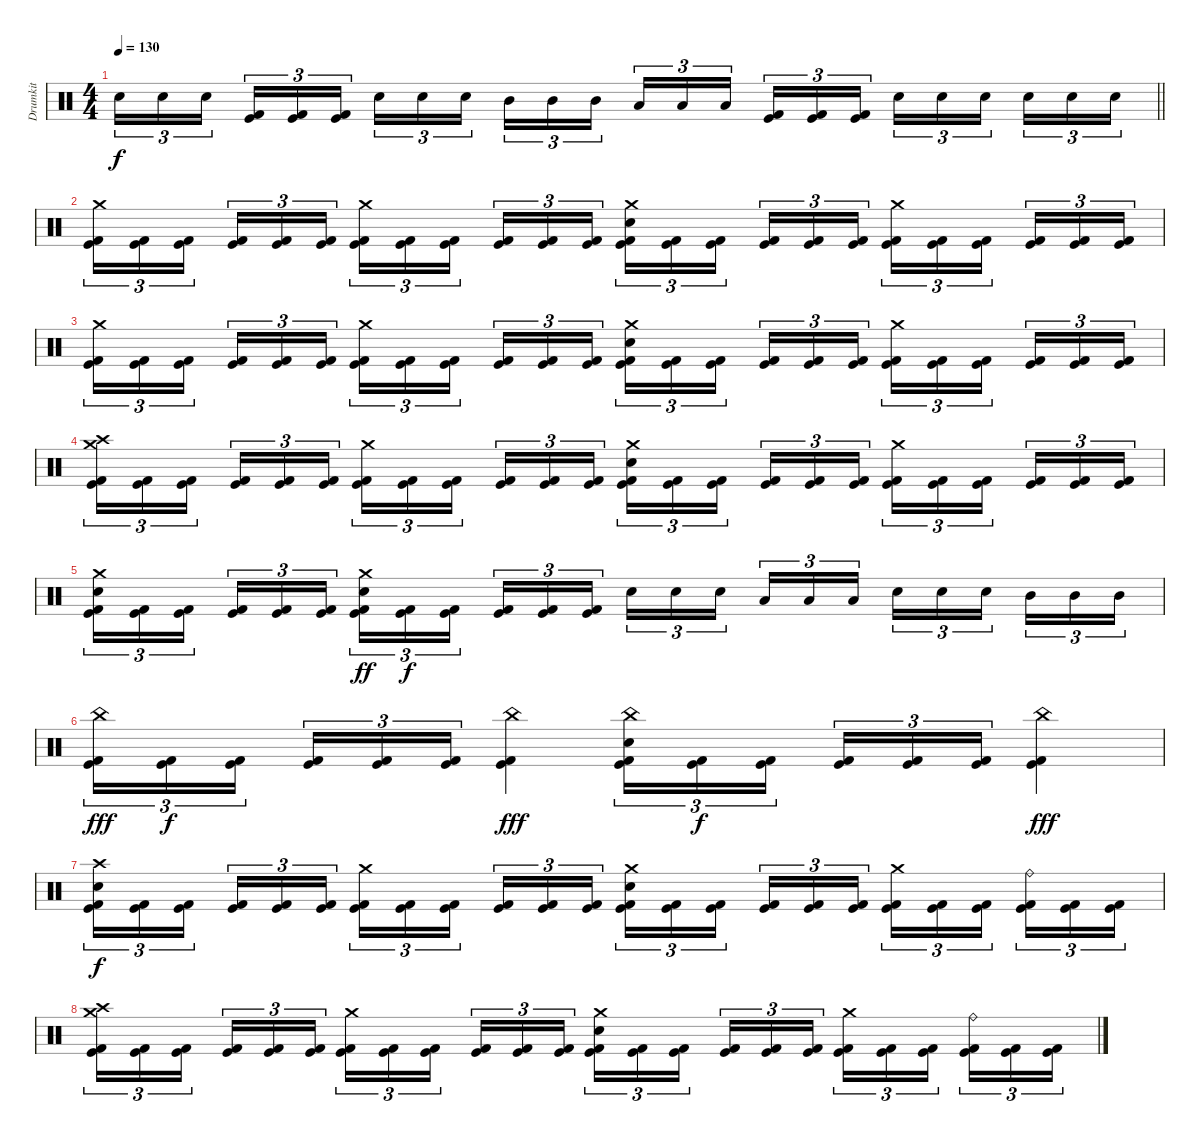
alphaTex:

\track ("Drumkit" "Drumkit") {instrument percussion}
\staff {score}
\articulation defaults
\ts (4 4)
\tempo 130
\clef neutral
\barLineRight lightlight
\ks c "Electric Snare (hit)".16{tu (3 2) dy f} "Electric Snare (hit)".16{tu (3 2)} "Electric Snare (hit)".16{tu (3 2) beam splitsecondary}
("Kick (hit)" "Kick (hit) 2").16{tu (3 2)} ("Kick (hit)" "Kick (hit) 2").16{tu (3 2)} ("Kick (hit)" "Kick (hit) 2").16{tu (3 2)} "Electric Snare (hit)".16{tu (3 2)} "Electric Snare (hit)".16{tu (3 2)} "Electric Snare (hit)".16{tu (3 2) beam splitsecondary} "Mid Tom (hit)".16{tu (3 2)} "Mid Tom (hit)".16{tu (3 2)} "Mid Tom (hit)".16{tu (3 2)} "Low Tom (hit)".16{tu (3 2)} "Low Tom (hit)".16{tu (3 2)} "Low Tom (hit)".16{tu (3 2) beam splitsecondary} ("Kick (hit)" "Kick (hit) 2").16{tu (3 2)} ("Kick (hit)" "Kick (hit) 2").16{tu (3 2)} ("Kick (hit)" "Kick (hit) 2").16{tu (3 2)} "Electric Snare (hit)".16{tu (3 2)} "Electric Snare (hit)".16{tu (3 2)} "Electric Snare (hit)".16{tu (3 2) beam splitsecondary} "Electric Snare (hit)".16{tu (3 2)} "Electric Snare (hit)".16{tu (3 2)} "Electric Snare (hit)".16{tu (3 2)} |
("Crash medium (hit)" "Kick (hit)" "Kick (hit) 2").16{tu (3 2)} ("Kick (hit)" "Kick (hit) 2").16{tu (3 2)} ("Kick (hit)" "Kick (hit) 2").16{tu (3 2) beam splitsecondary} ("Kick (hit)" "Kick (hit) 2").16{tu (3 2)} ("Kick (hit)" "Kick (hit) 2").16{tu (3 2)} ("Kick (hit)" "Kick (hit) 2").16{tu (3 2)} ("Crash medium (hit)" "Kick (hit)" "Kick (hit) 2").16{tu (3 2)} ("Kick (hit)" "Kick (hit) 2").16{tu (3 2)} ("Kick (hit)" "Kick (hit) 2").16{tu (3 2) beam splitsecondary} ("Kick (hit)" "Kick (hit) 2").16{tu (3 2)} ("Kick (hit)" "Kick (hit) 2").16{tu (3 2)} ("Kick (hit)" "Kick (hit) 2").16{tu (3 2)} ("Crash medium (hit)" "Electric Snare (hit)" "Kick (hit)" "Kick (hit) 2").16{tu (3 2)} ("Kick (hit)" "Kick (hit) 2").16{tu (3 2)} ("Kick (hit)" "Kick (hit) 2").16{tu (3 2) beam splitsecondary} ("Kick (hit)" "Kick (hit) 2").16{tu (3 2)} ("Kick (hit)" "Kick (hit) 2").16{tu (3 2)} ("Kick (hit)" "Kick (hit) 2").16{tu (3 2)} ("Crash medium (hit)" "Kick (hit)" "Kick (hit) 2").16{tu (3 2)} ("Kick (hit)" "Kick (hit) 2").16{tu (3 2)} ("Kick (hit)" "Kick (hit) 2").16{tu (3 2) beam splitsecondary} ("Kick (hit)" "Kick (hit) 2").16{tu (3 2)} ("Kick (hit)" "Kick (hit) 2").16{tu (3 2)} ("Kick (hit)" "Kick (hit) 2").16{tu (3 2)} |
("Crash medium (hit)" "Kick (hit)" "Kick (hit) 2").16{tu (3 2)} ("Kick (hit)" "Kick (hit) 2").16{tu (3 2)} ("Kick (hit)" "Kick (hit) 2").16{tu (3 2) beam splitsecondary} ("Kick (hit)" "Kick (hit) 2").16{tu (3 2)} ("Kick (hit)" "Kick (hit) 2").16{tu (3 2)} ("Kick (hit)" "Kick (hit) 2").16{tu (3 2)} ("Crash medium (hit)" "Kick (hit)" "Kick (hit) 2").16{tu (3 2)} ("Kick (hit)" "Kick (hit) 2").16{tu (3 2)} ("Kick (hit)" "Kick (hit) 2").16{tu (3 2) beam splitsecondary} ("Kick (hit)" "Kick (hit) 2").16{tu (3 2)} ("Kick (hit)" "Kick (hit) 2").16{tu (3 2)} ("Kick (hit)" "Kick (hit) 2").16{tu (3 2)} ("Crash medium (hit)" "Electric Snare (hit)" "Kick (hit)" "Kick (hit) 2").16{tu (3 2)} ("Kick (hit)" "Kick (hit) 2").16{tu (3 2)} ("Kick (hit)" "Kick (hit) 2").16{tu (3 2) beam splitsecondary} ("Kick (hit)" "Kick (hit) 2").16{tu (3 2)} ("Kick (hit)" "Kick (hit) 2").16{tu (3 2)} ("Kick (hit)" "Kick (hit) 2").16{tu (3 2)} ("Crash medium (hit)" "Kick (hit)" "Kick (hit) 2").16{tu (3 2)} ("Kick (hit)" "Kick (hit) 2").16{tu (3 2)} ("Kick (hit)" "Kick (hit) 2").16{tu (3 2) beam splitsecondary} ("Kick (hit)" "Kick (hit) 2").16{tu (3 2)} ("Kick (hit)" "Kick (hit) 2").16{tu (3 2)} ("Kick (hit)" "Kick (hit) 2").16{tu (3 2)} |
("Crash high (hit)" "Crash medium (hit)" "Kick (hit)" "Kick (hit) 2").16{tu (3 2)} ("Kick (hit)" "Kick (hit) 2").16{tu (3 2)} ("Kick (hit)" "Kick (hit) 2").16{tu (3 2) beam splitsecondary} ("Kick (hit)" "Kick (hit) 2").16{tu (3 2)} ("Kick (hit)" "Kick (hit) 2").16{tu (3 2)} ("Kick (hit)" "Kick (hit) 2").16{tu (3 2)} ("Crash medium (hit)" "Kick (hit)" "Kick (hit) 2").16{tu (3 2)} ("Kick (hit)" "Kick (hit) 2").16{tu (3 2)} ("Kick (hit)" "Kick (hit) 2").16{tu (3 2) beam splitsecondary} ("Kick (hit)" "Kick (hit) 2").16{tu (3 2)} ("Kick (hit)" "Kick (hit) 2").16{tu (3 2)} ("Kick (hit)" "Kick (hit) 2").16{tu (3 2)} ("Crash medium (hit)" "Electric Snare (hit)" "Kick (hit)" "Kick (hit) 2").16{tu (3 2)} ("Kick (hit)" "Kick (hit) 2").16{tu (3 2)} ("Kick (hit)" "Kick (hit) 2").16{tu (3 2) beam splitsecondary} ("Kick (hit)" "Kick (hit) 2").16{tu (3 2)} ("Kick (hit)" "Kick (hit) 2").16{tu (3 2)} ("Kick (hit)" "Kick (hit) 2").16{tu (3 2)} ("Crash medium (hit)" "Kick (hit)" "Kick (hit) 2").16{tu (3 2)} ("Kick (hit)" "Kick (hit) 2").16{tu (3 2)} ("Kick (hit)" "Kick (hit) 2").16{tu (3 2) beam splitsecondary} ("Kick (hit)" "Kick (hit) 2").16{tu (3 2)} ("Kick (hit)" "Kick (hit) 2").16{tu (3 2)} ("Kick (hit)" "Kick (hit) 2").16{tu (3 2)} |
("Crash medium (hit)" "Electric Snare (hit)" "Kick (hit)" "Kick (hit) 2").16{tu (3 2)} ("Kick (hit)" "Kick (hit) 2").16{tu (3 2)} ("Kick (hit)" "Kick (hit) 2").16{tu (3 2) beam splitsecondary} ("Kick (hit)" "Kick (hit) 2").16{tu (3 2)} ("Kick (hit)" "Kick (hit) 2").16{tu (3 2)} ("Kick (hit)" "Kick (hit) 2").16{tu (3 2)} ("Crash medium (hit)" "Electric Snare (hit)" "Kick (hit)" "Kick (hit) 2").16{tu (3 2) dy ff} ("Kick (hit)" "Kick (hit) 2").16{tu (3 2) dy f} ("Kick (hit)" "Kick (hit) 2").16{tu (3 2) beam splitsecondary} ("Kick (hit)" "Kick (hit) 2").16{tu (3 2)} ("Kick (hit)" "Kick (hit) 2").16{tu (3 2)} ("Kick (hit)" "Kick (hit) 2").16{tu (3 2)} "Electric Snare (hit)".16{tu (3 2)} "Electric Snare (hit)".16{tu (3 2)} "Electric Snare (hit)".16{tu (3 2) beam splitsecondary} "Low Tom (hit)".16{tu (3 2)} "Low Tom (hit)".16{tu (3 2)} "Low Tom (hit)".16{tu (3 2)} "Electric Snare (hit)".16{tu (3 2)} "Electric Snare (hit)".16{tu (3 2)} "Electric Snare (hit)".16{tu (3 2) beam splitsecondary} "Mid Tom (hit)".16{tu (3 2)} "Mid Tom (hit)".16{tu (3 2)} "Mid Tom (hit)".16{tu (3 2)} |
("China (hit)" "Kick (hit)" "Kick (hit) 2").16{tu (3 2) dy fff} ("Kick (hit)" "Kick (hit) 2").16{tu (3 2) dy f} ("Kick (hit)" "Kick (hit) 2").16{tu (3 2) beam splitsecondary} ("Kick (hit)" "Kick (hit) 2").16{tu (3 2)} ("Kick (hit)" "Kick (hit) 2").16{tu (3 2)} ("Kick (hit)" "Kick (hit) 2").16{tu (3 2)} ("China (hit)" "Kick (hit)" "Kick (hit) 2").4{dy fff} ("China (hit)" "Electric Snare (hit)" "Kick (hit)" "Kick (hit) 2").16{tu (3 2)} ("Kick (hit)" "Kick (hit) 2").16{tu (3 2) dy f} ("Kick (hit)" "Kick (hit) 2").16{tu (3 2) beam splitsecondary} ("Kick (hit)" "Kick (hit) 2").16{tu (3 2)} ("Kick (hit)" "Kick (hit) 2").16{tu (3 2)} ("Kick (hit)" "Kick (hit) 2").16{tu (3 2)} ("China (hit)" "Kick (hit)" "Kick (hit) 2").4{dy fff} |
("Crash high (hit)" "Electric Snare (hit)" "Kick (hit)" "Kick (hit) 2").16{tu (3 2) dy f} ("Kick (hit)" "Kick (hit) 2").16{tu (3 2)} ("Kick (hit)" "Kick (hit) 2").16{tu (3 2) beam splitsecondary} ("Kick (hit)" "Kick (hit) 2").16{tu (3 2)} ("Kick (hit)" "Kick (hit) 2").16{tu (3 2)} ("Kick (hit)" "Kick (hit) 2").16{tu (3 2)} ("Crash medium (hit)" "Kick (hit)" "Kick (hit) 2").16{tu (3 2)} ("Kick (hit)" "Kick (hit) 2").16{tu (3 2)} ("Kick (hit)" "Kick (hit) 2").16{tu (3 2) beam splitsecondary} ("Kick (hit)" "Kick (hit) 2").16{tu (3 2)} ("Kick (hit)" "Kick (hit) 2").16{tu (3 2)} ("Kick (hit)" "Kick (hit) 2").16{tu (3 2)} ("Crash medium (hit)" "Electric Snare (hit)" "Kick (hit)" "Kick (hit) 2").16{tu (3 2)} ("Kick (hit)" "Kick (hit) 2").16{tu (3 2)} ("Kick (hit)" "Kick (hit) 2").16{tu (3 2) beam splitsecondary} ("Kick (hit)" "Kick (hit) 2").16{tu (3 2)} ("Kick (hit)" "Kick (hit) 2").16{tu (3 2)} ("Kick (hit)" "Kick (hit) 2").16{tu (3 2)} ("Crash medium (hit)" "Kick (hit)" "Kick (hit) 2").16{tu (3 2)} ("Kick (hit)" "Kick (hit) 2").16{tu (3 2)} ("Kick (hit)" "Kick (hit) 2").16{tu (3 2) beam splitsecondary} ("Ride (bell)" "Kick (hit)" "Kick (hit) 2").16{tu (3 2)} ("Kick (hit)" "Kick (hit) 2").16{tu (3 2)} ("Kick (hit)" "Kick (hit) 2").16{tu (3 2)} |
("Crash high (hit)" "Crash medium (hit)" "Kick (hit)" "Kick (hit) 2").16{tu (3 2)} ("Kick (hit)" "Kick (hit) 2").16{tu (3 2)} ("Kick (hit)" "Kick (hit) 2").16{tu (3 2) beam splitsecondary} ("Kick (hit)" "Kick (hit) 2").16{tu (3 2)} ("Kick (hit)" "Kick (hit) 2").16{tu (3 2)} ("Kick (hit)" "Kick (hit) 2").16{tu (3 2)} ("Crash medium (hit)" "Kick (hit)" "Kick (hit) 2").16{tu (3 2)} ("Kick (hit)" "Kick (hit) 2").16{tu (3 2)} ("Kick (hit)" "Kick (hit) 2").16{tu (3 2) beam splitsecondary} ("Kick (hit)" "Kick (hit) 2").16{tu (3 2)} ("Kick (hit)" "Kick (hit) 2").16{tu (3 2)} ("Kick (hit)" "Kick (hit) 2").16{tu (3 2)} ("Crash medium (hit)" "Electric Snare (hit)" "Kick (hit)" "Kick (hit) 2").16{tu (3 2)} ("Kick (hit)" "Kick (hit) 2").16{tu (3 2)} ("Kick (hit)" "Kick (hit) 2").16{tu (3 2) beam splitsecondary} ("Kick (hit)" "Kick (hit) 2").16{tu (3 2)} ("Kick (hit)" "Kick (hit) 2").16{tu (3 2)} ("Kick (hit)" "Kick (hit) 2").16{tu (3 2)} ("Crash medium (hit)" "Kick (hit)" "Kick (hit) 2").16{tu (3 2)} ("Kick (hit)" "Kick (hit) 2").16{tu (3 2)} ("Kick (hit)" "Kick (hit) 2").16{tu (3 2) beam splitsecondary} ("Ride (bell)" "Kick (hit)" "Kick (hit) 2").16{tu (3 2)} ("Kick (hit)" "Kick (hit) 2").16{tu (3 2)} ("Kick (hit)" "Kick (hit) 2").16{tu (3 2)}
